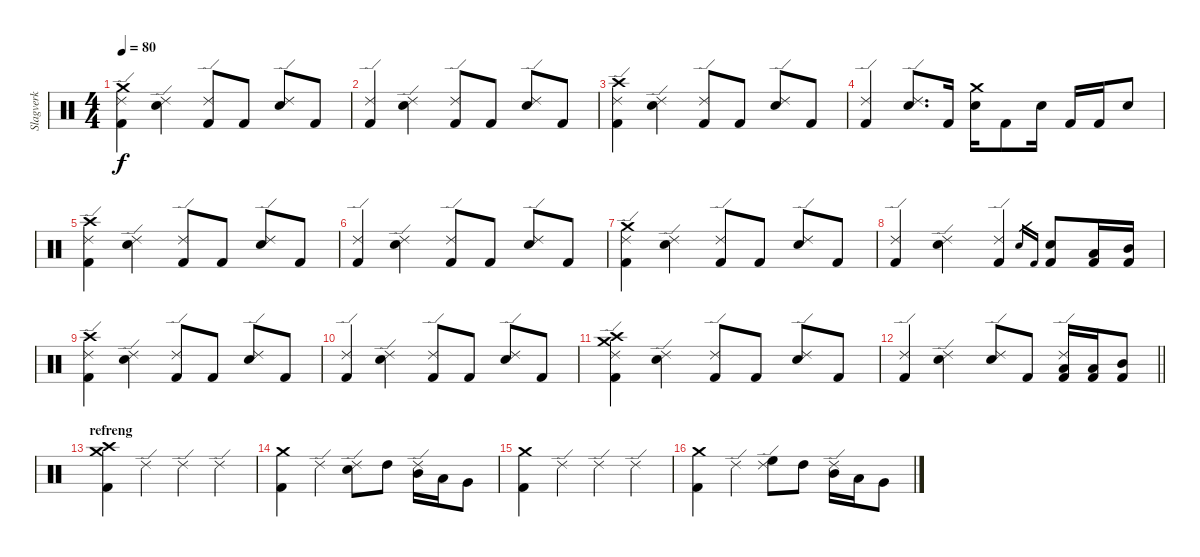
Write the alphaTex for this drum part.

\track ("Slagverk" "Slagverk") {instrument percussion}
\staff {score}
\articulation defaults
\ts (4 4)
\tempo 80
\clef neutral
\ks c
("Ride (edge) 2" "Kick (hit) 2" "Crash medium (hit)").4{dy f} ("Electric Snare (hit)" "Ride (edge) 2").4 ("Ride (edge) 2" "Kick (hit) 2").8 "Kick (hit) 2".8 ("Electric Snare (hit)" "Ride (edge) 2").8 "Kick (hit) 2".8 |
("Ride (edge) 2" "Kick (hit) 2").4 ("Electric Snare (hit)" "Ride (edge) 2").4 ("Ride (edge) 2" "Kick (hit) 2").8 "Kick (hit) 2".8 ("Electric Snare (hit)" "Ride (edge) 2").8 "Kick (hit) 2".8 |
("Ride (edge) 2" "Kick (hit) 2" "Crash high (hit)").4 ("Electric Snare (hit)" "Ride (edge) 2").4 ("Ride (edge) 2" "Kick (hit) 2").8 "Kick (hit) 2".8 ("Electric Snare (hit)" "Ride (edge) 2").8 "Kick (hit) 2".8 |
("Ride (edge) 2" "Kick (hit) 2").4 ("Electric Snare (hit)" "Ride (edge) 2").8{d} "Kick (hit) 2".16 ("Electric Snare (hit)" "Crash medium (hit)").16 "Kick (hit) 2".8 "Electric Snare (hit)".16 "Kick (hit) 2".16 "Kick (hit) 2".16 "Electric Snare (hit)".8 |
("Ride (edge) 2" "Kick (hit) 2" "Crash high (hit)").4 ("Electric Snare (hit)" "Ride (edge) 2").4 ("Ride (edge) 2" "Kick (hit) 2").8 "Kick (hit) 2".8 ("Electric Snare (hit)" "Ride (edge) 2").8 "Kick (hit) 2".8 |
("Ride (edge) 2" "Kick (hit) 2").4 ("Electric Snare (hit)" "Ride (edge) 2").4 ("Ride (edge) 2" "Kick (hit) 2").8 "Kick (hit) 2".8 ("Electric Snare (hit)" "Ride (edge) 2").8 "Kick (hit) 2".8 |
("Ride (edge) 2" "Kick (hit) 2" "Crash medium (hit)").4 ("Electric Snare (hit)" "Ride (edge) 2").4 ("Ride (edge) 2" "Kick (hit) 2").8 "Kick (hit) 2".8 ("Electric Snare (hit)" "Ride (edge) 2").8 "Kick (hit) 2".8 |
("Ride (edge) 2" "Kick (hit) 2").4 ("Electric Snare (hit)" "Ride (edge) 2").4 ("Ride (edge) 2" "Kick (hit) 2").4 "Electric Snare (hit)".16{gr} "Kick (hit) 2".16{gr} ("Electric Snare (hit)" "Kick (hit) 2").8 ("Low Tom (hit)" "Kick (hit) 2").16 ("Mid Tom (hit)" "Kick (hit) 2").16 |
("Ride (edge) 2" "Kick (hit) 2" "Crash high (hit)").4 ("Electric Snare (hit)" "Ride (edge) 2").4 ("Ride (edge) 2" "Kick (hit) 2").8 "Kick (hit) 2".8 ("Electric Snare (hit)" "Ride (edge) 2").8 "Kick (hit) 2".8 |
("Ride (edge) 2" "Kick (hit) 2").4 ("Electric Snare (hit)" "Ride (edge) 2").4 ("Ride (edge) 2" "Kick (hit) 2").8 "Kick (hit) 2".8 ("Electric Snare (hit)" "Ride (edge) 2").8 "Kick (hit) 2".8 |
("Ride (edge) 2" "Kick (hit) 2" "Crash medium (hit)" "Crash high (hit)").4 ("Electric Snare (hit)" "Ride (edge) 2").4 ("Ride (edge) 2" "Kick (hit) 2").8 "Kick (hit) 2".8 ("Electric Snare (hit)" "Ride (edge) 2").8 "Kick (hit) 2".8 |
\barLineRight lightlight
("Ride (edge) 2" "Kick (hit) 2").4 ("Electric Snare (hit)" "Ride (edge) 2").4 ("Electric Snare (hit)" "Ride (edge) 2").8 "Kick (hit) 2".8 ("Ride (edge) 2" "Low Tom (hit)" "Kick (hit) 2").16 ("Low Tom (hit)" "Kick (hit) 2").16 ("Mid Tom (hit)" "Kick (hit) 2").8 |
\section ("" "refreng")
("Kick (hit) 2" "Crash medium (hit)" "Crash high (hit)").4 "Ride (edge) 2".4 "Ride (edge) 2".4 "Ride (edge) 2".4 |
("Crash medium (hit)" "Kick (hit) 2").4 "Ride (edge) 2".4 ("Ride (edge) 2" "Electric Snare (hit)").8 "High Tom (hit)".8 ("Ride (edge) 2" "Mid Tom (hit)").16 "Low Tom (hit)".16 "Very Low Tom (hit)".8 |
("Crash medium (hit)" "Kick (hit) 2").4 "Ride (edge) 2".4 "Ride (edge) 2".4 "Ride (edge) 2".4 |
("Crash medium (hit)" "Kick (hit) 2").4 "Ride (edge) 2".4 ("Ride (edge) 2" "High Floor Tom (hit)").8 "High Tom (hit)".8 ("Ride (edge) 2" "Mid Tom (hit)").16 "Low Tom (hit)".16 "Very Low Tom (hit)".8
